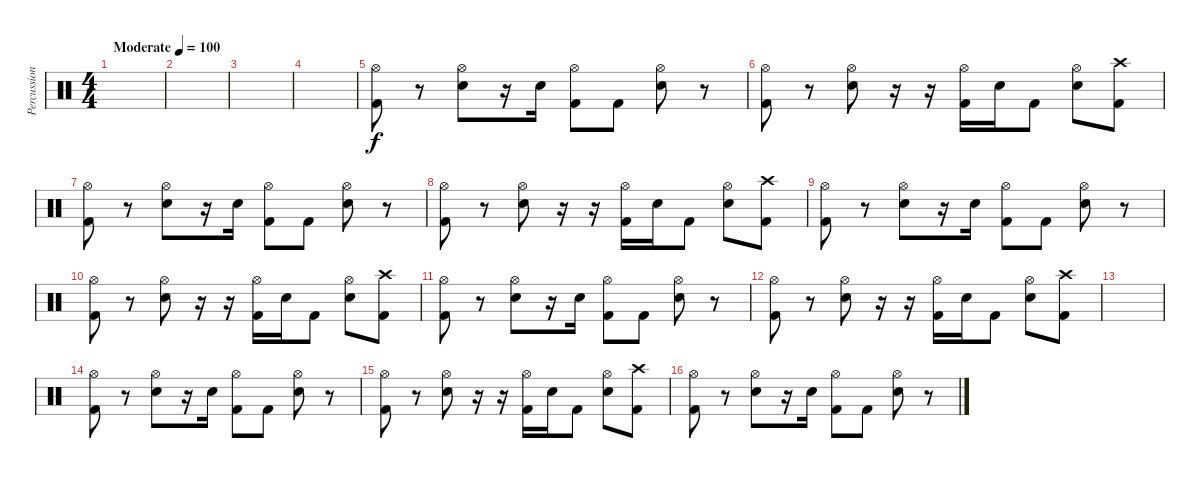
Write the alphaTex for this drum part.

\track ("Percussions" "Percussion") {instrument percussion}
\staff {score}
\articulation defaults
\ts (4 4)
\tempo (100 "Moderate")
\clef neutral
\ks c
|
|
|
|
("Hi-Hat (open)" "Kick (hit) 2").8 r.8 ("Hi-Hat (open)" "Snare (hit) 2").8 r.16 "Snare (hit) 2".16 ("Hi-Hat (open)" "Kick (hit) 2").8 "Kick (hit) 2".8 ("Hi-Hat (open)" "Snare (hit) 2").8 r.8 |
("Hi-Hat (open)" "Kick (hit) 2").8 r.8 ("Hi-Hat (open)" "Snare (hit) 2").8 r.16 r.16 ("Hi-Hat (open)" "Kick (hit) 2").16 "Snare (hit) 2".16 "Kick (hit) 2".8 ("Hi-Hat (open)" "Snare (hit) 2").8 ("Crash high (hit)" "Kick (hit) 2").8 |
("Hi-Hat (open)" "Kick (hit) 2").8 r.8 ("Hi-Hat (open)" "Snare (hit) 2").8 r.16 "Snare (hit) 2".16 ("Hi-Hat (open)" "Kick (hit) 2").8 "Kick (hit) 2".8 ("Hi-Hat (open)" "Snare (hit) 2").8 r.8 |
("Hi-Hat (open)" "Kick (hit) 2").8 r.8 ("Hi-Hat (open)" "Snare (hit) 2").8 r.16 r.16 ("Hi-Hat (open)" "Kick (hit) 2").16 "Snare (hit) 2".16 "Kick (hit) 2".8 ("Hi-Hat (open)" "Snare (hit) 2").8 ("Crash high (hit)" "Kick (hit) 2").8 |
("Hi-Hat (open)" "Kick (hit) 2").8 r.8 ("Hi-Hat (open)" "Snare (hit) 2").8 r.16 "Snare (hit) 2".16 ("Hi-Hat (open)" "Kick (hit) 2").8 "Kick (hit) 2".8 ("Hi-Hat (open)" "Snare (hit) 2").8 r.8 |
("Hi-Hat (open)" "Kick (hit) 2").8 r.8 ("Hi-Hat (open)" "Snare (hit) 2").8 r.16 r.16 ("Hi-Hat (open)" "Kick (hit) 2").16 "Snare (hit) 2".16 "Kick (hit) 2".8 ("Hi-Hat (open)" "Snare (hit) 2").8 ("Crash high (hit)" "Kick (hit) 2").8 |
("Hi-Hat (open)" "Kick (hit) 2").8 r.8 ("Hi-Hat (open)" "Snare (hit) 2").8 r.16 "Snare (hit) 2".16 ("Hi-Hat (open)" "Kick (hit) 2").8 "Kick (hit) 2".8 ("Hi-Hat (open)" "Snare (hit) 2").8 r.8 |
("Hi-Hat (open)" "Kick (hit) 2").8 r.8 ("Hi-Hat (open)" "Snare (hit) 2").8 r.16 r.16 ("Hi-Hat (open)" "Kick (hit) 2").16 "Snare (hit) 2".16 "Kick (hit) 2".8 ("Hi-Hat (open)" "Snare (hit) 2").8 ("Crash high (hit)" "Kick (hit) 2").8 |
|
("Hi-Hat (open)" "Kick (hit) 2").8 r.8 ("Hi-Hat (open)" "Snare (hit) 2").8 r.16 "Snare (hit) 2".16 ("Hi-Hat (open)" "Kick (hit) 2").8 "Kick (hit) 2".8 ("Hi-Hat (open)" "Snare (hit) 2").8 r.8 |
("Hi-Hat (open)" "Kick (hit) 2").8 r.8 ("Hi-Hat (open)" "Snare (hit) 2").8 r.16 r.16 ("Hi-Hat (open)" "Kick (hit) 2").16 "Snare (hit) 2".16 "Kick (hit) 2".8 ("Hi-Hat (open)" "Snare (hit) 2").8 ("Crash high (hit)" "Kick (hit) 2").8 |
("Hi-Hat (open)" "Kick (hit) 2").8 r.8 ("Hi-Hat (open)" "Snare (hit) 2").8 r.16 "Snare (hit) 2".16 ("Hi-Hat (open)" "Kick (hit) 2").8 "Kick (hit) 2".8 ("Hi-Hat (open)" "Snare (hit) 2").8 r.8
